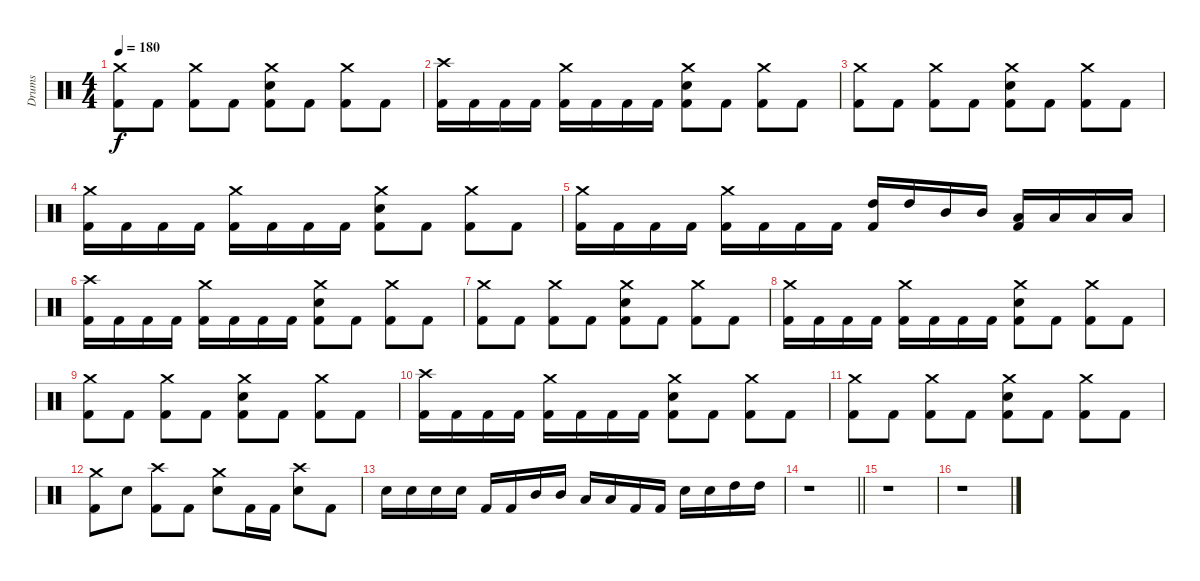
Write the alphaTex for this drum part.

\track ("Drums" "Drums") {instrument percussion}
\staff {score}
\articulation defaults
\ts (4 4)
\tempo 180
\clef neutral
\ks c
("Crash medium (hit)" "Kick (hit) 2").8{dy f} "Kick (hit) 2".8 ("Crash medium (hit)" "Kick (hit) 2").8 "Kick (hit) 2".8 ("Crash medium (hit)" "Snare (hit) 2" "Kick (hit) 2").8 "Kick (hit) 2".8 ("Crash medium (hit)" "Kick (hit) 2").8 "Kick (hit) 2".8 |
("Crash high (hit)" "Kick (hit) 2").16 "Kick (hit) 2".16 "Kick (hit) 2".16 "Kick (hit) 2".16 ("Crash medium (hit)" "Kick (hit) 2").16 "Kick (hit) 2".16 "Kick (hit) 2".16 "Kick (hit) 2".16 ("Crash medium (hit)" "Snare (hit) 2" "Kick (hit) 2").8 "Kick (hit) 2".8 ("Crash medium (hit)" "Kick (hit) 2").8 "Kick (hit) 2".8 |
("Crash medium (hit)" "Kick (hit) 2").8 "Kick (hit) 2".8 ("Crash medium (hit)" "Kick (hit) 2").8 "Kick (hit) 2".8 ("Crash medium (hit)" "Snare (hit) 2" "Kick (hit) 2").8 "Kick (hit) 2".8 ("Crash medium (hit)" "Kick (hit) 2").8 "Kick (hit) 2".8 |
("Crash medium (hit)" "Kick (hit) 2").16 "Kick (hit) 2".16 "Kick (hit) 2".16 "Kick (hit) 2".16 ("Crash medium (hit)" "Kick (hit) 2").16 "Kick (hit) 2".16 "Kick (hit) 2".16 "Kick (hit) 2".16 ("Crash medium (hit)" "Snare (hit) 2" "Kick (hit) 2").8 "Kick (hit) 2".8 ("Crash medium (hit)" "Kick (hit) 2").8 "Kick (hit) 2".8 |
("Crash medium (hit)" "Kick (hit) 2").16 "Kick (hit) 2".16 "Kick (hit) 2".16 "Kick (hit) 2".16 ("Crash medium (hit)" "Kick (hit) 2").16 "Kick (hit) 2".16 "Kick (hit) 2".16 "Kick (hit) 2".16 ("High Tom (hit)" "Kick (hit) 2").16 "High Tom (hit)".16 "Mid Tom (hit)".16 "Mid Tom (hit)".16 ("Low Tom (hit)" "Kick (hit) 2").16 "Low Tom (hit)".16 "Low Tom (hit)".16 "Low Tom (hit)".16 |
("Crash high (hit)" "Kick (hit) 2").16 "Kick (hit) 2".16 "Kick (hit) 2".16 "Kick (hit) 2".16 ("Crash medium (hit)" "Kick (hit) 2").16 "Kick (hit) 2".16 "Kick (hit) 2".16 "Kick (hit) 2".16 ("Crash medium (hit)" "Snare (hit) 2" "Kick (hit) 2").8 "Kick (hit) 2".8 ("Crash medium (hit)" "Kick (hit) 2").8 "Kick (hit) 2".8 |
("Crash medium (hit)" "Kick (hit) 2").8 "Kick (hit) 2".8 ("Crash medium (hit)" "Kick (hit) 2").8 "Kick (hit) 2".8 ("Crash medium (hit)" "Snare (hit) 2" "Kick (hit) 2").8 "Kick (hit) 2".8 ("Crash medium (hit)" "Kick (hit) 2").8 "Kick (hit) 2".8 |
("Crash medium (hit)" "Kick (hit) 2").16 "Kick (hit) 2".16 "Kick (hit) 2".16 "Kick (hit) 2".16 ("Crash medium (hit)" "Kick (hit) 2").16 "Kick (hit) 2".16 "Kick (hit) 2".16 "Kick (hit) 2".16 ("Crash medium (hit)" "Snare (hit) 2" "Kick (hit) 2").8 "Kick (hit) 2".8 ("Crash medium (hit)" "Kick (hit) 2").8 "Kick (hit) 2".8 |
("Crash medium (hit)" "Kick (hit) 2").8 "Kick (hit) 2".8 ("Crash medium (hit)" "Kick (hit) 2").8 "Kick (hit) 2".8 ("Crash medium (hit)" "Snare (hit) 2" "Kick (hit) 2").8 "Kick (hit) 2".8 ("Crash medium (hit)" "Kick (hit) 2").8 "Kick (hit) 2".8 |
("Crash high (hit)" "Kick (hit) 2").16 "Kick (hit) 2".16 "Kick (hit) 2".16 "Kick (hit) 2".16 ("Crash medium (hit)" "Kick (hit) 2").16 "Kick (hit) 2".16 "Kick (hit) 2".16 "Kick (hit) 2".16 ("Crash medium (hit)" "Snare (hit) 2" "Kick (hit) 2").8 "Kick (hit) 2".8 ("Crash medium (hit)" "Kick (hit) 2").8 "Kick (hit) 2".8 |
("Crash medium (hit)" "Kick (hit) 2").8 "Kick (hit) 2".8 ("Crash medium (hit)" "Kick (hit) 2").8 "Kick (hit) 2".8 ("Crash medium (hit)" "Snare (hit) 2" "Kick (hit) 2").8 "Kick (hit) 2".8 ("Crash medium (hit)" "Kick (hit) 2").8 "Kick (hit) 2".8 |
("Crash medium (hit)" "Kick (hit) 2").8 "Snare (hit) 2".8 ("Crash high (hit)" "Kick (hit) 2").8 "Kick (hit) 2".8 ("Crash medium (hit)" "Snare (hit) 2").8 "Kick (hit) 2".16 "Kick (hit) 2".16 ("Crash high (hit)" "Snare (hit) 2").8 "Kick (hit) 2".8 |
"Snare (hit) 2".16 "Snare (hit) 2".16 "Snare (hit) 2".16 "Snare (hit) 2".16 "Kick (hit) 2".16 "Kick (hit) 2".16 "Mid Tom (hit)".16 "Mid Tom (hit)".16 "Low Tom (hit)".16 "Low Tom (hit)".16 "Kick (hit) 2".16 "Kick (hit) 2".16 "Snare (hit) 2".16 "Snare (hit) 2".16 "High Tom (hit)".16 "High Tom (hit)".16 |
\barLineRight lightlight
r.1 |
r.1 |
r.1
